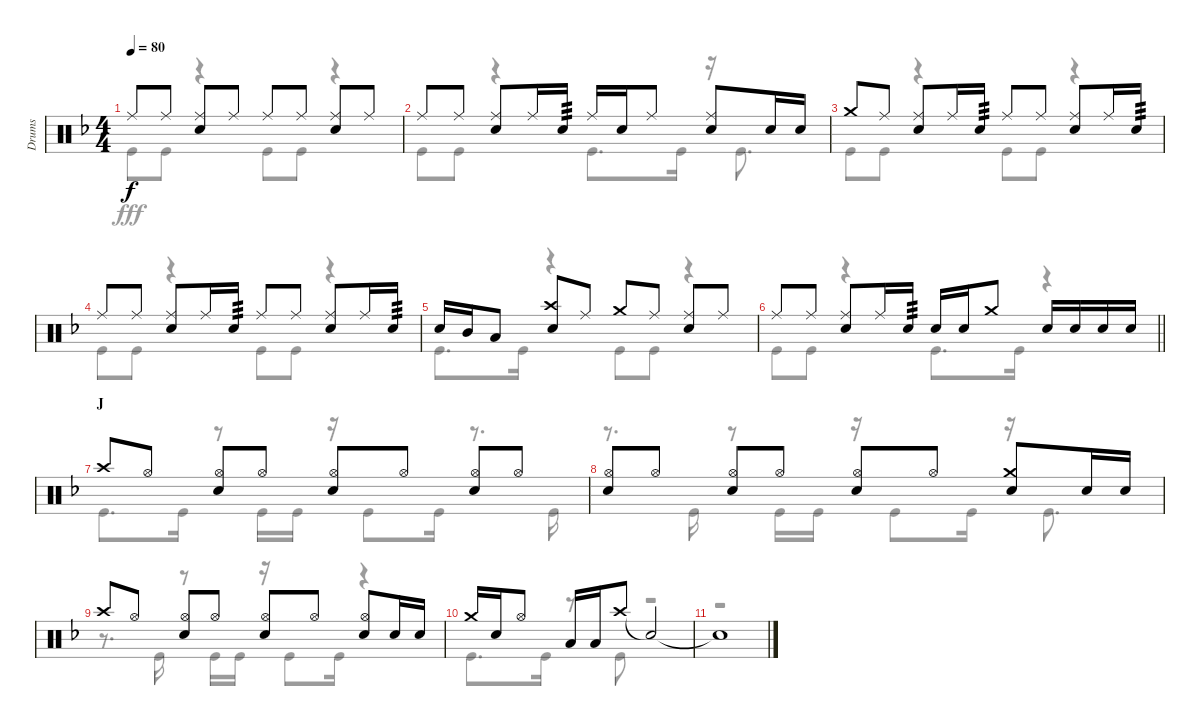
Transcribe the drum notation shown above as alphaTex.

\track ("Drums" "Drums") {instrument percussion}
\staff {score}
\articulation defaults
\voice
\ts (4 4)
\tempo 80
\clef neutral
\ks f "Ride (middle)".8{dy f} "Ride (middle)".8
("Ride (middle)" "Snare (hit) 2").8 "Ride (middle)".8 "Ride (middle)".8 "Ride (middle)".8 ("Ride (middle)" "Snare (hit) 2").8 "Ride (middle)".8 |
"Ride (middle)".8 "Ride (middle)".8 ("Ride (middle)" "Snare (hit) 2").8 "Ride (middle)".16 "Snare (hit) 2".16{tp 3} "Ride (middle)".16 "Snare (hit) 2".16 "Ride (middle)".8 ("Ride (middle)" "Snare (hit) 2").8 "Snare (hit) 2".16 "Snare (hit) 2".16 |
"Crash medium (hit)".8 "Ride (middle)".8 ("Ride (middle)" "Snare (hit) 2").8 "Ride (middle)".16 "Snare (hit) 2".16{tp 3} "Ride (middle)".8 "Ride (middle)".8 ("Ride (middle)" "Snare (hit) 2").8 "Ride (middle)".16 "Snare (hit) 2".16{tp 3} |
"Ride (middle)".8 "Ride (middle)".8 ("Ride (middle)" "Snare (hit) 2").8 "Ride (middle)".16 "Snare (hit) 2".16{tp 3} "Ride (middle)".8 "Ride (middle)".8 ("Ride (middle)" "Snare (hit) 2").8 "Ride (middle)".16 "Snare (hit) 2".16{tp 3} |
"Snare (hit) 2".16 "Mid Tom (hit)".16 "Low Tom (hit)".8 ("Crash high (hit)" "Snare (hit) 2").8 "Ride (middle)".8 "Crash medium (hit)".8 "Ride (middle)".8 ("Ride (middle)" "Snare (hit) 2").8 "Ride (middle)".8 |
\barLineRight lightlight "Ride (middle)".8 "Ride (middle)".8
("Ride (middle)" "Snare (hit) 2").8 "Ride (middle)".16 "Snare (hit) 2".16{tp 3} "Snare (hit) 2".16 "Snare (hit) 2".16 "Crash medium (hit)".8 "Snare (hit) 2".16 "Snare (hit) 2".16 "Snare (hit) 2".16 "Snare (hit) 2".16 |
\section ("" "J")
"Crash high (hit)".8 "Hi-Hat (open)".8 ("Hi-Hat (open)" "Snare (hit) 2").8 "Hi-Hat (open)".8 ("Hi-Hat (open)" "Snare (hit) 2").8 "Hi-Hat (open)".8 ("Hi-Hat (open)" "Snare (hit) 2").8 "Hi-Hat (open)".8 |
("Hi-Hat (open)" "Snare (hit) 2").8 "Hi-Hat (open)".8 ("Hi-Hat (open)" "Snare (hit) 2").8 "Hi-Hat (open)".8 ("Hi-Hat (open)" "Snare (hit) 2").8 "Hi-Hat (open)".8 ("Crash medium (hit)" "Snare (hit) 2").8 "Snare (hit) 2".16 "Snare (hit) 2".16 |
"Crash high (hit)".8 "Hi-Hat (open)".8 ("Hi-Hat (open)" "Snare (hit) 2").8 "Hi-Hat (open)".8 ("Hi-Hat (open)" "Snare (hit) 2").8 "Hi-Hat (open)".8 ("Hi-Hat (open)" "Snare (hit) 2").8 "Snare (hit) 2".16 "Snare (hit) 2".16 |
"Crash medium (hit)".16 "Snare (hit) 2".16 "Hi-Hat (open)".8 "Low Tom (hit)".16 "Low Tom (hit)".16 "Crash high (hit)".8 "Snare (hit)"{t}.2 |
"Snare (hit)"{t}.1
\voice
\clef neutral
\ottava regular
\simile none
\ks f "Kick (hit)".8{dy fff} "Kick (hit)".8
r.4 "Kick (hit)".8 "Kick (hit)".8 r.4 |
"Kick (hit)".8 "Kick (hit)".8 r.4 "Kick (hit)".8{d} "Kick (hit)".16 r.16 "Kick (hit)".8{d} |
"Kick (hit)".8 "Kick (hit)".8 r.4 "Kick (hit)".8 "Kick (hit)".8 r.4 |
"Kick (hit)".8 "Kick (hit)".8 r.4 "Kick (hit)".8 "Kick (hit)".8 r.4 |
"Kick (hit)".8{d} "Kick (hit)".16 r.4 "Kick (hit)".8 "Kick (hit)".8 r.4 |
\barLineRight lightlight "Kick (hit)".8 "Kick (hit)".8
r.4 "Kick (hit)".8{d} "Kick (hit)".16 r.4 |
"Kick (hit)".8{d} "Kick (hit)".16 r.8 "Kick (hit)".16 "Kick (hit)".16 r.16 "Kick (hit)".8 "Kick (hit)".16 r.8{d} "Kick (hit)".16 |
r.8{d} "Kick (hit)".16 r.8 "Kick (hit)".16 "Kick (hit)".16 r.16 "Kick (hit)".8 "Kick (hit)".16 r.16 "Kick (hit)".8{d} |
r.8{d} "Kick (hit)".16 r.8 "Kick (hit)".16 "Kick (hit)".16 r.16 "Kick (hit)".8 "Kick (hit)".16 r.4 |
"Kick (hit)".8{d} "Kick (hit)".16 r.8 "Kick (hit)".8 r.2 |
r.1
